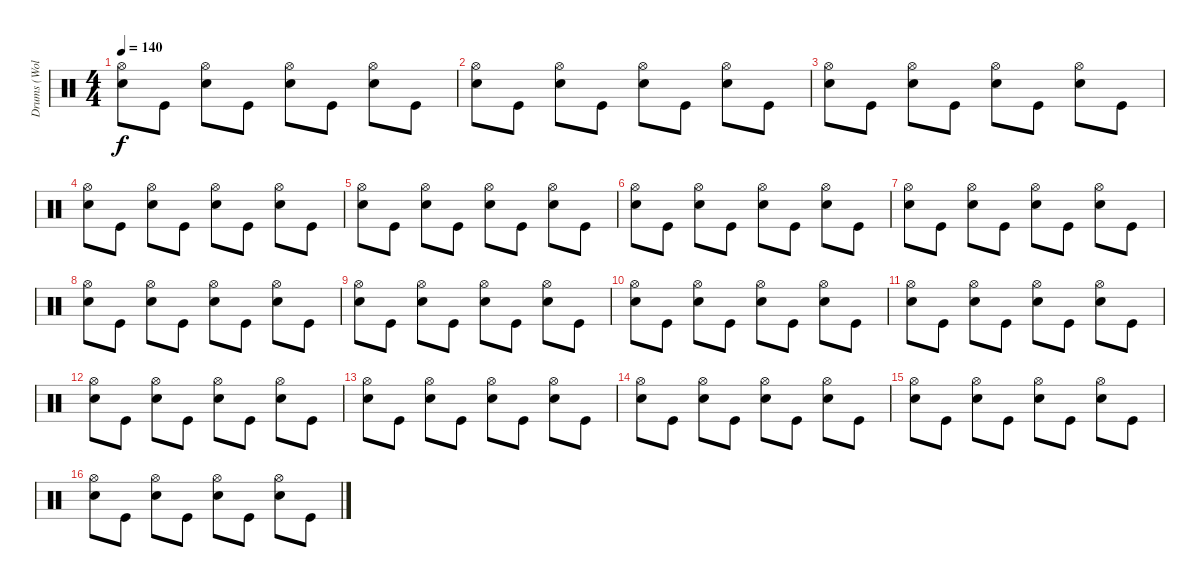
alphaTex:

\track ("Drums (Wolf Simons)" "Drums (Wol") {instrument percussion}
\staff {score}
\articulation defaults
\ts (4 4)
\tempo 140
\clef neutral
\ks c
("Hi-Hat (open)" "Electric Snare (hit)").8{dy f} "Kick (hit)".8 ("Hi-Hat (open)" "Electric Snare (hit)").8 "Kick (hit)".8 ("Hi-Hat (open)" "Electric Snare (hit)").8 "Kick (hit)".8 ("Hi-Hat (open)" "Electric Snare (hit)").8 "Kick (hit)".8 |
("Hi-Hat (open)" "Electric Snare (hit)").8 "Kick (hit)".8 ("Hi-Hat (open)" "Electric Snare (hit)").8 "Kick (hit)".8 ("Hi-Hat (open)" "Electric Snare (hit)").8 "Kick (hit)".8 ("Hi-Hat (open)" "Electric Snare (hit)").8 "Kick (hit)".8 |
("Hi-Hat (open)" "Electric Snare (hit)").8 "Kick (hit)".8 ("Hi-Hat (open)" "Electric Snare (hit)").8 "Kick (hit)".8 ("Hi-Hat (open)" "Electric Snare (hit)").8 "Kick (hit)".8 ("Hi-Hat (open)" "Electric Snare (hit)").8 "Kick (hit)".8 |
("Hi-Hat (open)" "Electric Snare (hit)").8 "Kick (hit)".8 ("Hi-Hat (open)" "Electric Snare (hit)").8 "Kick (hit)".8 ("Hi-Hat (open)" "Electric Snare (hit)").8 "Kick (hit)".8 ("Hi-Hat (open)" "Electric Snare (hit)").8 "Kick (hit)".8 |
("Hi-Hat (open)" "Electric Snare (hit)").8 "Kick (hit)".8 ("Hi-Hat (open)" "Electric Snare (hit)").8 "Kick (hit)".8 ("Hi-Hat (open)" "Electric Snare (hit)").8 "Kick (hit)".8 ("Hi-Hat (open)" "Electric Snare (hit)").8 "Kick (hit)".8 |
("Hi-Hat (open)" "Electric Snare (hit)").8 "Kick (hit)".8 ("Hi-Hat (open)" "Electric Snare (hit)").8 "Kick (hit)".8 ("Hi-Hat (open)" "Electric Snare (hit)").8 "Kick (hit)".8 ("Hi-Hat (open)" "Electric Snare (hit)").8 "Kick (hit)".8 |
("Hi-Hat (open)" "Electric Snare (hit)").8 "Kick (hit)".8 ("Hi-Hat (open)" "Electric Snare (hit)").8 "Kick (hit)".8 ("Hi-Hat (open)" "Electric Snare (hit)").8 "Kick (hit)".8 ("Hi-Hat (open)" "Electric Snare (hit)").8 "Kick (hit)".8 |
("Hi-Hat (open)" "Electric Snare (hit)").8 "Kick (hit)".8 ("Hi-Hat (open)" "Electric Snare (hit)").8 "Kick (hit)".8 ("Hi-Hat (open)" "Electric Snare (hit)").8 "Kick (hit)".8 ("Hi-Hat (open)" "Electric Snare (hit)").8 "Kick (hit)".8 |
("Hi-Hat (open)" "Electric Snare (hit)").8 "Kick (hit)".8 ("Hi-Hat (open)" "Electric Snare (hit)").8 "Kick (hit)".8 ("Hi-Hat (open)" "Electric Snare (hit)").8 "Kick (hit)".8 ("Hi-Hat (open)" "Electric Snare (hit)").8 "Kick (hit)".8 |
("Hi-Hat (open)" "Electric Snare (hit)").8 "Kick (hit)".8 ("Hi-Hat (open)" "Electric Snare (hit)").8 "Kick (hit)".8 ("Hi-Hat (open)" "Electric Snare (hit)").8 "Kick (hit)".8 ("Hi-Hat (open)" "Electric Snare (hit)").8 "Kick (hit)".8 |
("Hi-Hat (open)" "Electric Snare (hit)").8 "Kick (hit)".8 ("Hi-Hat (open)" "Electric Snare (hit)").8 "Kick (hit)".8 ("Hi-Hat (open)" "Electric Snare (hit)").8 "Kick (hit)".8 ("Hi-Hat (open)" "Electric Snare (hit)").8 "Kick (hit)".8 |
("Hi-Hat (open)" "Electric Snare (hit)").8 "Kick (hit)".8 ("Hi-Hat (open)" "Electric Snare (hit)").8 "Kick (hit)".8 ("Hi-Hat (open)" "Electric Snare (hit)").8 "Kick (hit)".8 ("Hi-Hat (open)" "Electric Snare (hit)").8 "Kick (hit)".8 |
("Hi-Hat (open)" "Electric Snare (hit)").8 "Kick (hit)".8 ("Hi-Hat (open)" "Electric Snare (hit)").8 "Kick (hit)".8 ("Hi-Hat (open)" "Electric Snare (hit)").8 "Kick (hit)".8 ("Hi-Hat (open)" "Electric Snare (hit)").8 "Kick (hit)".8 |
("Hi-Hat (open)" "Electric Snare (hit)").8 "Kick (hit)".8 ("Hi-Hat (open)" "Electric Snare (hit)").8 "Kick (hit)".8 ("Hi-Hat (open)" "Electric Snare (hit)").8 "Kick (hit)".8 ("Hi-Hat (open)" "Electric Snare (hit)").8 "Kick (hit)".8 |
("Hi-Hat (open)" "Electric Snare (hit)").8 "Kick (hit)".8 ("Hi-Hat (open)" "Electric Snare (hit)").8 "Kick (hit)".8 ("Hi-Hat (open)" "Electric Snare (hit)").8 "Kick (hit)".8 ("Hi-Hat (open)" "Electric Snare (hit)").8 "Kick (hit)".8 |
("Hi-Hat (open)" "Electric Snare (hit)").8 "Kick (hit)".8 ("Hi-Hat (open)" "Electric Snare (hit)").8 "Kick (hit)".8 ("Hi-Hat (open)" "Electric Snare (hit)").8 "Kick (hit)".8 ("Hi-Hat (open)" "Electric Snare (hit)").8 "Kick (hit)".8
